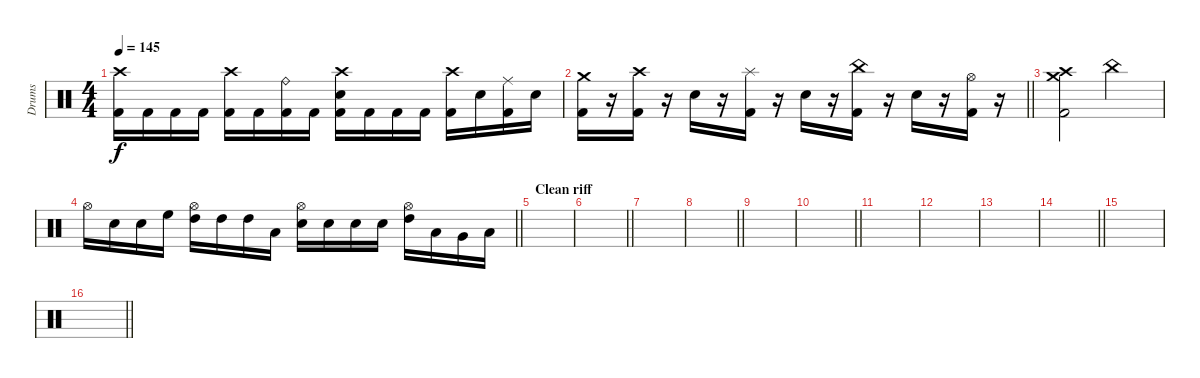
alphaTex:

\track ("Drums" "Drums") {mute instrument percussion}
\staff {score}
\articulation defaults
\ts (4 4)
\tempo 145
\clef neutral
\ks c
("Crash high (hit)" "Kick (hit) 2").16{dy f} "Kick (hit) 2".16 "Kick (hit) 2".16 "Kick (hit) 2".16 ("Crash high (hit)" "Kick (hit) 2").16 "Kick (hit) 2".16 ("Ride (bell)" "Kick (hit) 2").16 "Kick (hit) 2".16 ("Crash high (hit)" "Electric Snare (hit)" "Kick (hit) 2").16 "Kick (hit) 2".16 "Kick (hit) 2".16 "Kick (hit) 2".16 ("Crash high (hit)" "Kick (hit) 2").16 "Electric Snare (hit)".16 ("Ride (middle)" "Kick (hit) 2").16 "Electric Snare (hit)".16 |
\barLineRight lightlight
("Crash medium (hit)" "Kick (hit) 2").16 r.16 ("Crash high (hit)" "Kick (hit) 2").16 r.16 "Electric Snare (hit)".16 r.16 ("Splash (hit)" "Kick (hit) 2").16 r.16 "Electric Snare (hit)".16 r.16 ("China (hit)" "Kick (hit) 2").16 r.16 "Electric Snare (hit)".16 r.16 ("Hi-Hat (open)" "Kick (hit) 2").16 r.16 |
("Crash medium (hit)" "Crash high (hit)" "Kick (hit) 2").2 "China (hit)".2 |
\barLineRight lightlight "Hi-Hat (open)".16 "Electric Snare (hit)".16 "Electric Snare (hit)".16 "High Floor Tom (hit)".16
("Hi-Hat (open)" "High Tom (hit)").16 "High Tom (hit)".16 "High Tom (hit)".16 "Low Tom (hit)".16 ("Hi-Hat (open)" "Electric Snare (hit)").16 "Electric Snare (hit)".16 "Electric Snare (hit)".16 "Electric Snare (hit)".16 ("Hi-Hat (open)" "High Tom (hit)").16 "Low Tom (hit)".16 "Very Low Tom (hit)".16 "Low Floor Tom (hit)".16 |
\section ("" "Clean riff")
|
\barLineRight lightlight
|
|
\barLineRight lightlight
|
\section ("" "")
|
\barLineRight lightlight
|
|
|
|
\barLineRight lightlight
|
|
\barLineRight lightlight
